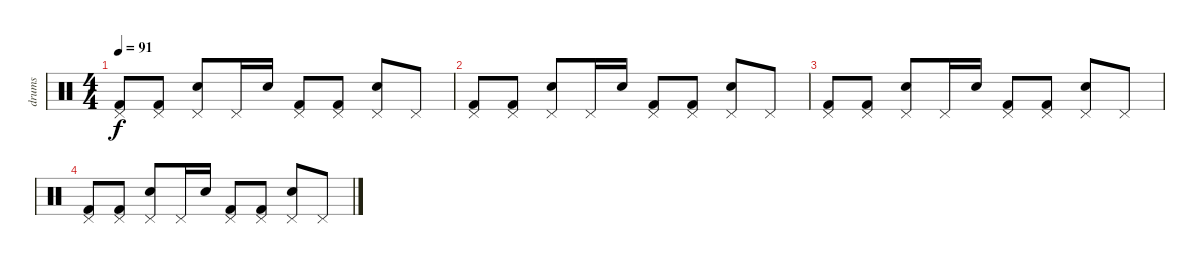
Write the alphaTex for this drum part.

\track ("drums" "drums") {instrument percussion}
\staff {score}
\articulation defaults
\ts (4 4)
\tempo 91
\clef neutral
\ks c
("Pedal Hi-Hat (hit)" "Kick (hit) 2").8{dy f} ("Pedal Hi-Hat (hit)" "Kick (hit) 2").8 ("Pedal Hi-Hat (hit)" "Electric Snare (hit)").8 "Pedal Hi-Hat (hit)".16 "Electric Snare (hit)".16 ("Pedal Hi-Hat (hit)" "Kick (hit) 2").8 ("Pedal Hi-Hat (hit)" "Kick (hit) 2").8 ("Pedal Hi-Hat (hit)" "Electric Snare (hit)").8 "Pedal Hi-Hat (hit)".8 |
("Pedal Hi-Hat (hit)" "Kick (hit) 2").8 ("Pedal Hi-Hat (hit)" "Kick (hit) 2").8 ("Pedal Hi-Hat (hit)" "Electric Snare (hit)").8 "Pedal Hi-Hat (hit)".16 "Electric Snare (hit)".16 ("Pedal Hi-Hat (hit)" "Kick (hit) 2").8 ("Pedal Hi-Hat (hit)" "Kick (hit) 2").8 ("Pedal Hi-Hat (hit)" "Electric Snare (hit)").8 "Pedal Hi-Hat (hit)".8 |
("Pedal Hi-Hat (hit)" "Kick (hit) 2").8 ("Pedal Hi-Hat (hit)" "Kick (hit) 2").8 ("Pedal Hi-Hat (hit)" "Electric Snare (hit)").8 "Pedal Hi-Hat (hit)".16 "Electric Snare (hit)".16 ("Pedal Hi-Hat (hit)" "Kick (hit) 2").8 ("Pedal Hi-Hat (hit)" "Kick (hit) 2").8 ("Pedal Hi-Hat (hit)" "Electric Snare (hit)").8 "Pedal Hi-Hat (hit)".8 |
("Pedal Hi-Hat (hit)" "Kick (hit) 2").8 ("Pedal Hi-Hat (hit)" "Kick (hit) 2").8 ("Pedal Hi-Hat (hit)" "Electric Snare (hit)").8 "Pedal Hi-Hat (hit)".16 "Electric Snare (hit)".16 ("Pedal Hi-Hat (hit)" "Kick (hit) 2").8 ("Pedal Hi-Hat (hit)" "Kick (hit) 2").8 ("Pedal Hi-Hat (hit)" "Electric Snare (hit)").8 "Pedal Hi-Hat (hit)".8
